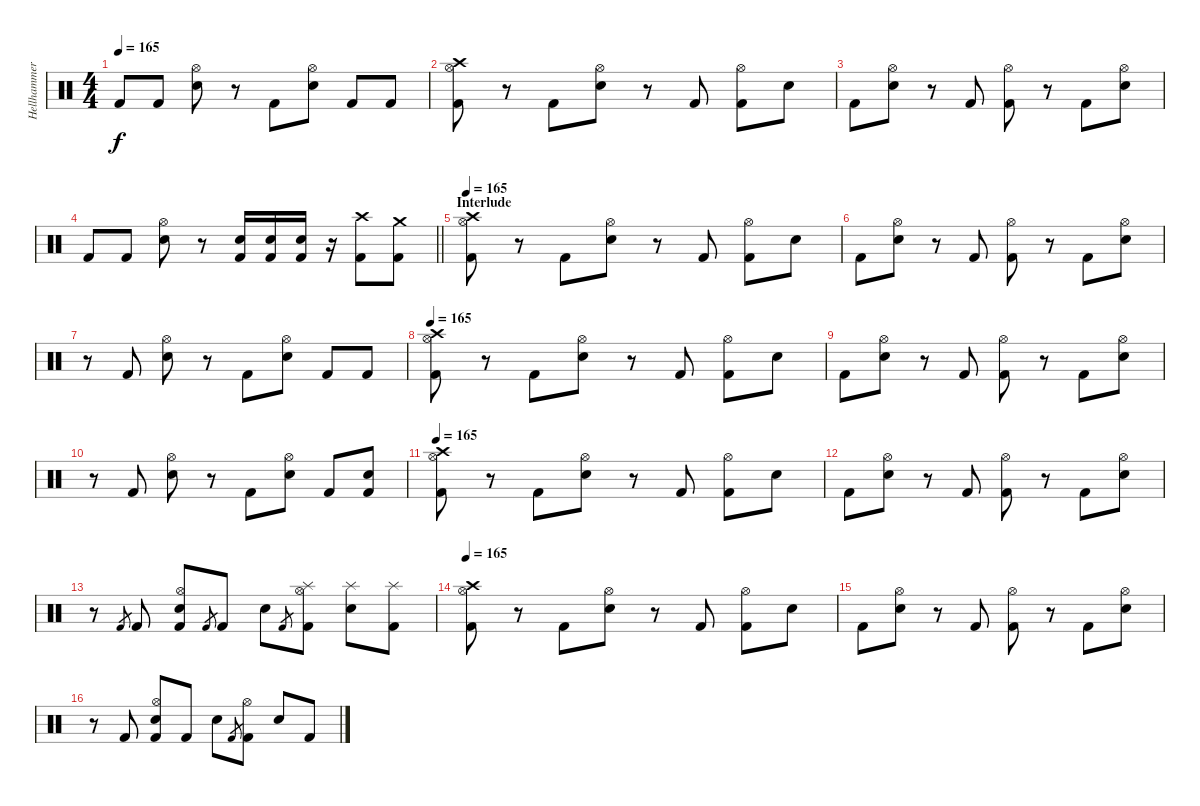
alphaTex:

\track ("Hellhammer" "Hellhammer") {instrument percussion}
\staff {score}
\articulation defaults
\ts (4 4)
\tempo 165
\clef neutral
\ks c "Kick (hit) 2".8{dy f} "Kick (hit) 2".8
("Hi-Hat (open)" "Snare (hit) 2").8 r.8 "Kick (hit) 2".8 ("Hi-Hat (open)" "Snare (hit) 2").8 "Kick (hit) 2".8 "Kick (hit) 2".8 |
("Crash high (hit)" "Hi-Hat (open)" "Kick (hit) 2").8 r.8 "Kick (hit) 2".8 ("Hi-Hat (open)" "Snare (hit) 2").8 r.8 "Kick (hit) 2".8 ("Hi-Hat (open)" "Kick (hit) 2").8 "Snare (hit)".8 |
"Kick (hit) 2".8 ("Hi-Hat (open)" "Snare (hit) 2").8 r.8 "Kick (hit) 2".8 ("Hi-Hat (open)" "Kick (hit) 2").8 r.8 "Kick (hit) 2".8 ("Hi-Hat (open)" "Snare (hit) 2").8 |
\barLineRight lightlight "Kick (hit) 2".8 "Kick (hit) 2".8
("Hi-Hat (open)" "Snare (hit) 2").8 r.8 ("Snare (hit) 2" "Kick (hit) 2").16 ("Snare (hit) 2" "Kick (hit) 2").16 ("Snare (hit) 2" "Kick (hit) 2").16 r.16 ("Crash high (hit)" "Kick (hit) 2").8 ("Crash medium (hit)" "Kick (hit) 2").8 |
\section ("" "Interlude")
\tempo 165
("Crash high (hit)" "Hi-Hat (open)" "Kick (hit) 2").8 r.8 "Kick (hit) 2".8 ("Hi-Hat (open)" "Snare (hit) 2").8 r.8 "Kick (hit) 2".8 ("Hi-Hat (open)" "Kick (hit) 2").8 "Snare (hit)".8 |
"Kick (hit) 2".8 ("Hi-Hat (open)" "Snare (hit) 2").8 r.8 "Kick (hit) 2".8 ("Hi-Hat (open)" "Kick (hit) 2").8 r.8 "Kick (hit) 2".8 ("Hi-Hat (open)" "Snare (hit) 2").8 |
r.8 "Kick (hit) 2".8 ("Hi-Hat (open)" "Snare (hit) 2").8 r.8 "Kick (hit) 2".8 ("Hi-Hat (open)" "Snare (hit) 2").8 "Kick (hit) 2".8 "Kick (hit) 2".8 |
\tempo 165
("Crash high (hit)" "Hi-Hat (open)" "Kick (hit) 2").8 r.8 "Kick (hit) 2".8 ("Hi-Hat (open)" "Snare (hit) 2").8 r.8 "Kick (hit) 2".8 ("Hi-Hat (open)" "Kick (hit) 2").8 "Snare (hit)".8 |
"Kick (hit) 2".8 ("Hi-Hat (open)" "Snare (hit) 2").8 r.8 "Kick (hit) 2".8 ("Hi-Hat (open)" "Kick (hit) 2").8 r.8 "Kick (hit) 2".8 ("Hi-Hat (open)" "Snare (hit) 2").8 |
r.8 "Kick (hit) 2".8 ("Hi-Hat (open)" "Snare (hit) 2").8 r.8 "Kick (hit) 2".8 ("Hi-Hat (open)" "Snare (hit) 2").8 "Kick (hit) 2".8 ("Snare (hit) 2" "Kick (hit) 2").8 |
\tempo 165
("Crash high (hit)" "Hi-Hat (open)" "Kick (hit) 2").8 r.8 "Kick (hit) 2".8 ("Hi-Hat (open)" "Snare (hit) 2").8 r.8 "Kick (hit) 2".8 ("Hi-Hat (open)" "Kick (hit) 2").8 "Snare (hit)".8 |
"Kick (hit) 2".8 ("Hi-Hat (open)" "Snare (hit) 2").8 r.8 "Kick (hit) 2".8 ("Hi-Hat (open)" "Kick (hit) 2").8 r.8 "Kick (hit) 2".8 ("Hi-Hat (open)" "Snare (hit) 2").8 |
r.8 "Kick (hit) 2".8{gr} "Kick (hit) 2".8 ("Hi-Hat (open)" "Snare (hit) 2" "Kick (hit) 2").8 "Kick (hit) 2".8{gr} "Kick (hit) 2".8 "Snare (hit) 2".8 "Kick (hit) 2".8{gr} ("Splash (hit)" "Hi-Hat (open)" "Kick (hit) 2").8 ("Splash (hit)" "Snare (hit) 2").8 ("Splash (hit)" "Kick (hit) 2").8 |
\tempo 165
("Crash high (hit)" "Hi-Hat (open)" "Kick (hit) 2").8 r.8 "Kick (hit) 2".8 ("Hi-Hat (open)" "Snare (hit) 2").8 r.8 "Kick (hit) 2".8 ("Hi-Hat (open)" "Kick (hit) 2").8 "Snare (hit)".8 |
"Kick (hit) 2".8 ("Hi-Hat (open)" "Snare (hit) 2").8 r.8 "Kick (hit) 2".8 ("Hi-Hat (open)" "Kick (hit) 2").8 r.8 "Kick (hit) 2".8 ("Hi-Hat (open)" "Snare (hit) 2").8 |
r.8 "Kick (hit) 2".8 ("Hi-Hat (open)" "Snare (hit) 2" "Kick (hit) 2").8 "Kick (hit) 2".8 "Snare (hit) 2".8 "Kick (hit) 2".8{gr} ("Hi-Hat (open)" "Kick (hit) 2").8 "Snare (hit) 2".8 "Kick (hit) 2".8
